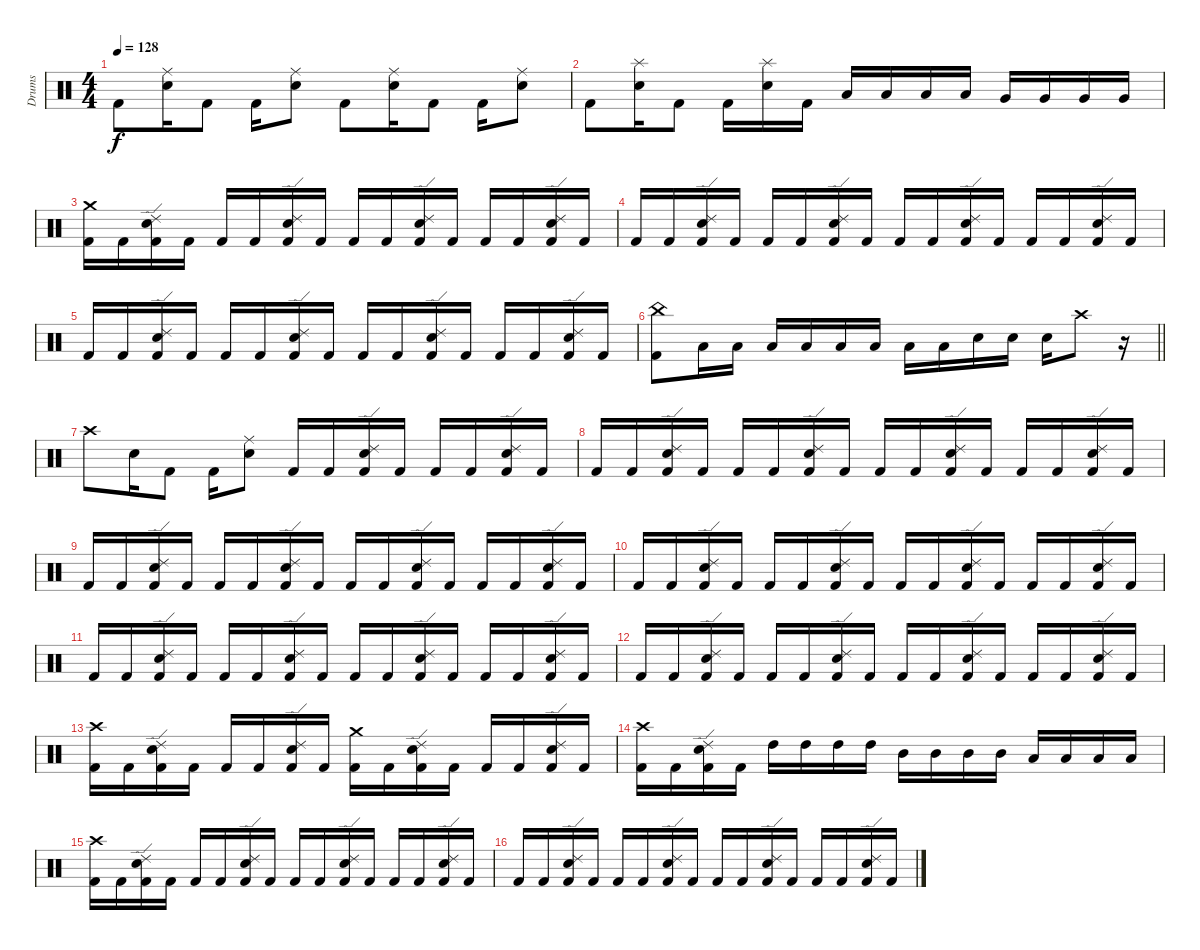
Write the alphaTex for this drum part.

\track ("Drums" "Drums") {instrument percussion}
\staff {score}
\articulation defaults
\ts (4 4)
\tempo 128
\clef neutral
\ks c "Kick (hit) 2".8{dy f}
("Ride (middle)" "Snare (hit) 2").16 "Kick (hit) 2".8 "Kick (hit) 2".16 ("Ride (middle)" "Snare (hit) 2").8 "Kick (hit) 2".8 ("Ride (middle)" "Snare (hit) 2").16 "Kick (hit) 2".8 "Kick (hit) 2".16 ("Ride (middle)" "Snare (hit) 2").8 |
"Kick (hit) 2".8 ("Splash (hit)" "Snare (hit) 2").16 "Kick (hit) 2".8 "Kick (hit) 2".16 ("Splash (hit)" "Snare (hit) 2").16 "Kick (hit) 2".16 "Low Tom (hit)".16 "Low Tom (hit)".16 "Low Tom (hit)".16 "Low Tom (hit)".16 "Very Low Tom (hit)".16 "Very Low Tom (hit)".16 "Very Low Tom (hit)".16 "Very Low Tom (hit)".16 |
("Crash medium (hit)" "Kick (hit) 2").16 "Kick (hit) 2".16 ("Ride (edge) 2" "Snare (hit) 2" "Kick (hit) 2").16 "Kick (hit) 2".16 "Kick (hit) 2".16 "Kick (hit) 2".16 ("Ride (edge) 2" "Snare (hit) 2" "Kick (hit) 2").16 "Kick (hit) 2".16 "Kick (hit) 2".16 "Kick (hit) 2".16 ("Ride (edge) 2" "Snare (hit) 2" "Kick (hit) 2").16 "Kick (hit) 2".16 "Kick (hit) 2".16 "Kick (hit) 2".16 ("Ride (edge) 2" "Snare (hit) 2" "Kick (hit) 2").16 "Kick (hit) 2".16 |
"Kick (hit) 2".16 "Kick (hit) 2".16 ("Ride (edge) 2" "Snare (hit) 2" "Kick (hit) 2").16 "Kick (hit) 2".16 "Kick (hit) 2".16 "Kick (hit) 2".16 ("Ride (edge) 2" "Snare (hit) 2" "Kick (hit) 2").16 "Kick (hit) 2".16 "Kick (hit) 2".16 "Kick (hit) 2".16 ("Ride (edge) 2" "Snare (hit) 2" "Kick (hit) 2").16 "Kick (hit) 2".16 "Kick (hit) 2".16 "Kick (hit) 2".16 ("Ride (edge) 2" "Snare (hit) 2" "Kick (hit) 2").16 "Kick (hit) 2".16 |
"Kick (hit) 2".16 "Kick (hit) 2".16 ("Ride (edge) 2" "Snare (hit) 2" "Kick (hit) 2").16 "Kick (hit) 2".16 "Kick (hit) 2".16 "Kick (hit) 2".16 ("Ride (edge) 2" "Snare (hit) 2" "Kick (hit) 2").16 "Kick (hit) 2".16 "Kick (hit) 2".16 "Kick (hit) 2".16 ("Ride (edge) 2" "Snare (hit) 2" "Kick (hit) 2").16 "Kick (hit) 2".16 "Kick (hit) 2".16 "Kick (hit) 2".16 ("Ride (edge) 2" "Snare (hit) 2" "Kick (hit) 2").16 "Kick (hit) 2".16 |
\barLineRight lightlight
("China (hit)" "Kick (hit) 2").8 "Low Tom (hit)".16 "Low Tom (hit)".16 "Low Tom (hit)".16 "Low Tom (hit)".16 "Low Tom (hit)".16 "Low Tom (hit)".16 "Low Tom (hit)".16 "Low Tom (hit)".16 "Snare (hit) 2".16 "Snare (hit) 2".16 "Snare (hit) 2".16 "Crash high (hit)".8 r.16 |
\section ("" "")
"Crash high (hit)".8 "Snare (hit) 2".16 "Kick (hit) 2".8 "Kick (hit) 2".16 ("Ride (middle)" "Snare (hit) 2").8 "Kick (hit) 2".16 "Kick (hit) 2".16 ("Ride (edge) 2" "Snare (hit) 2" "Kick (hit) 2").16 "Kick (hit) 2".16 "Kick (hit) 2".16 "Kick (hit) 2".16 ("Ride (edge) 2" "Snare (hit) 2" "Kick (hit) 2").16 "Kick (hit) 2".16 |
"Kick (hit) 2".16 "Kick (hit) 2".16 ("Ride (edge) 2" "Snare (hit) 2" "Kick (hit) 2").16 "Kick (hit) 2".16 "Kick (hit) 2".16 "Kick (hit) 2".16 ("Ride (edge) 2" "Snare (hit) 2" "Kick (hit) 2").16 "Kick (hit) 2".16 "Kick (hit) 2".16 "Kick (hit) 2".16 ("Ride (edge) 2" "Snare (hit) 2" "Kick (hit) 2").16 "Kick (hit) 2".16 "Kick (hit) 2".16 "Kick (hit) 2".16 ("Ride (edge) 2" "Snare (hit) 2" "Kick (hit) 2").16 "Kick (hit) 2".16 |
"Kick (hit) 2".16 "Kick (hit) 2".16 ("Ride (edge) 2" "Snare (hit) 2" "Kick (hit) 2").16 "Kick (hit) 2".16 "Kick (hit) 2".16 "Kick (hit) 2".16 ("Ride (edge) 2" "Snare (hit) 2" "Kick (hit) 2").16 "Kick (hit) 2".16 "Kick (hit) 2".16 "Kick (hit) 2".16 ("Ride (edge) 2" "Snare (hit) 2" "Kick (hit) 2").16 "Kick (hit) 2".16 "Kick (hit) 2".16 "Kick (hit) 2".16 ("Ride (edge) 2" "Snare (hit) 2" "Kick (hit) 2").16 "Kick (hit) 2".16 |
"Kick (hit) 2".16 "Kick (hit) 2".16 ("Ride (edge) 2" "Snare (hit) 2" "Kick (hit) 2").16 "Kick (hit) 2".16 "Kick (hit) 2".16 "Kick (hit) 2".16 ("Ride (edge) 2" "Snare (hit) 2" "Kick (hit) 2").16 "Kick (hit) 2".16 "Kick (hit) 2".16 "Kick (hit) 2".16 ("Ride (edge) 2" "Snare (hit) 2" "Kick (hit) 2").16 "Kick (hit) 2".16 "Kick (hit) 2".16 "Kick (hit) 2".16 ("Ride (edge) 2" "Snare (hit) 2" "Kick (hit) 2").16 "Kick (hit) 2".16 |
"Kick (hit) 2".16 "Kick (hit) 2".16 ("Ride (edge) 2" "Snare (hit) 2" "Kick (hit) 2").16 "Kick (hit) 2".16 "Kick (hit) 2".16 "Kick (hit) 2".16 ("Ride (edge) 2" "Snare (hit) 2" "Kick (hit) 2").16 "Kick (hit) 2".16 "Kick (hit) 2".16 "Kick (hit) 2".16 ("Ride (edge) 2" "Snare (hit) 2" "Kick (hit) 2").16 "Kick (hit) 2".16 "Kick (hit) 2".16 "Kick (hit) 2".16 ("Ride (edge) 2" "Snare (hit) 2" "Kick (hit) 2").16 "Kick (hit) 2".16 |
"Kick (hit) 2".16 "Kick (hit) 2".16 ("Ride (edge) 2" "Snare (hit) 2" "Kick (hit) 2").16 "Kick (hit) 2".16 "Kick (hit) 2".16 "Kick (hit) 2".16 ("Ride (edge) 2" "Snare (hit) 2" "Kick (hit) 2").16 "Kick (hit) 2".16 "Kick (hit) 2".16 "Kick (hit) 2".16 ("Ride (edge) 2" "Snare (hit) 2" "Kick (hit) 2").16 "Kick (hit) 2".16 "Kick (hit) 2".16 "Kick (hit) 2".16 ("Ride (edge) 2" "Snare (hit) 2" "Kick (hit) 2").16 "Kick (hit) 2".16 |
("Crash high (hit)" "Kick (hit) 2").16 "Kick (hit) 2".16 ("Ride (edge) 2" "Snare (hit) 2" "Kick (hit) 2").16 "Kick (hit) 2".16 "Kick (hit) 2".16 "Kick (hit) 2".16 ("Ride (edge) 2" "Snare (hit) 2" "Kick (hit) 2").16 "Kick (hit) 2".16 ("Crash medium (hit)" "Kick (hit) 2").16 "Kick (hit) 2".16 ("Ride (edge) 2" "Snare (hit) 2" "Kick (hit) 2").16 "Kick (hit) 2".16 "Kick (hit) 2".16 "Kick (hit) 2".16 ("Ride (edge) 2" "Snare (hit) 2" "Kick (hit) 2").16 "Kick (hit) 2".16 |
("Crash high (hit)" "Kick (hit) 2").16 "Kick (hit) 2".16 ("Ride (edge) 2" "Snare (hit) 2" "Kick (hit) 2").16 "Kick (hit) 2".16 "High Tom (hit)".16 "High Tom (hit)".16 "High Tom (hit)".16 "High Tom (hit)".16 "Mid Tom (hit)".16 "Mid Tom (hit)".16 "Mid Tom (hit)".16 "Mid Tom (hit)".16 "Low Tom (hit)".16 "Low Tom (hit)".16 "Low Tom (hit)".16 "Low Tom (hit)".16 |
("Crash high (hit)" "Kick (hit) 2").16 "Kick (hit) 2".16 ("Ride (edge) 2" "Snare (hit) 2" "Kick (hit) 2").16 "Kick (hit) 2".16 "Kick (hit) 2".16 "Kick (hit) 2".16 ("Ride (edge) 2" "Snare (hit) 2" "Kick (hit) 2").16 "Kick (hit) 2".16 "Kick (hit) 2".16 "Kick (hit) 2".16 ("Ride (edge) 2" "Snare (hit) 2" "Kick (hit) 2").16 "Kick (hit) 2".16 "Kick (hit) 2".16 "Kick (hit) 2".16 ("Ride (edge) 2" "Snare (hit) 2" "Kick (hit) 2").16 "Kick (hit) 2".16 |
"Kick (hit) 2".16 "Kick (hit) 2".16 ("Ride (edge) 2" "Snare (hit) 2" "Kick (hit) 2").16 "Kick (hit) 2".16 "Kick (hit) 2".16 "Kick (hit) 2".16 ("Ride (edge) 2" "Snare (hit) 2" "Kick (hit) 2").16 "Kick (hit) 2".16 "Kick (hit) 2".16 "Kick (hit) 2".16 ("Ride (edge) 2" "Snare (hit) 2" "Kick (hit) 2").16 "Kick (hit) 2".16 "Kick (hit) 2".16 "Kick (hit) 2".16 ("Ride (edge) 2" "Snare (hit) 2" "Kick (hit) 2").16 "Kick (hit) 2".16
